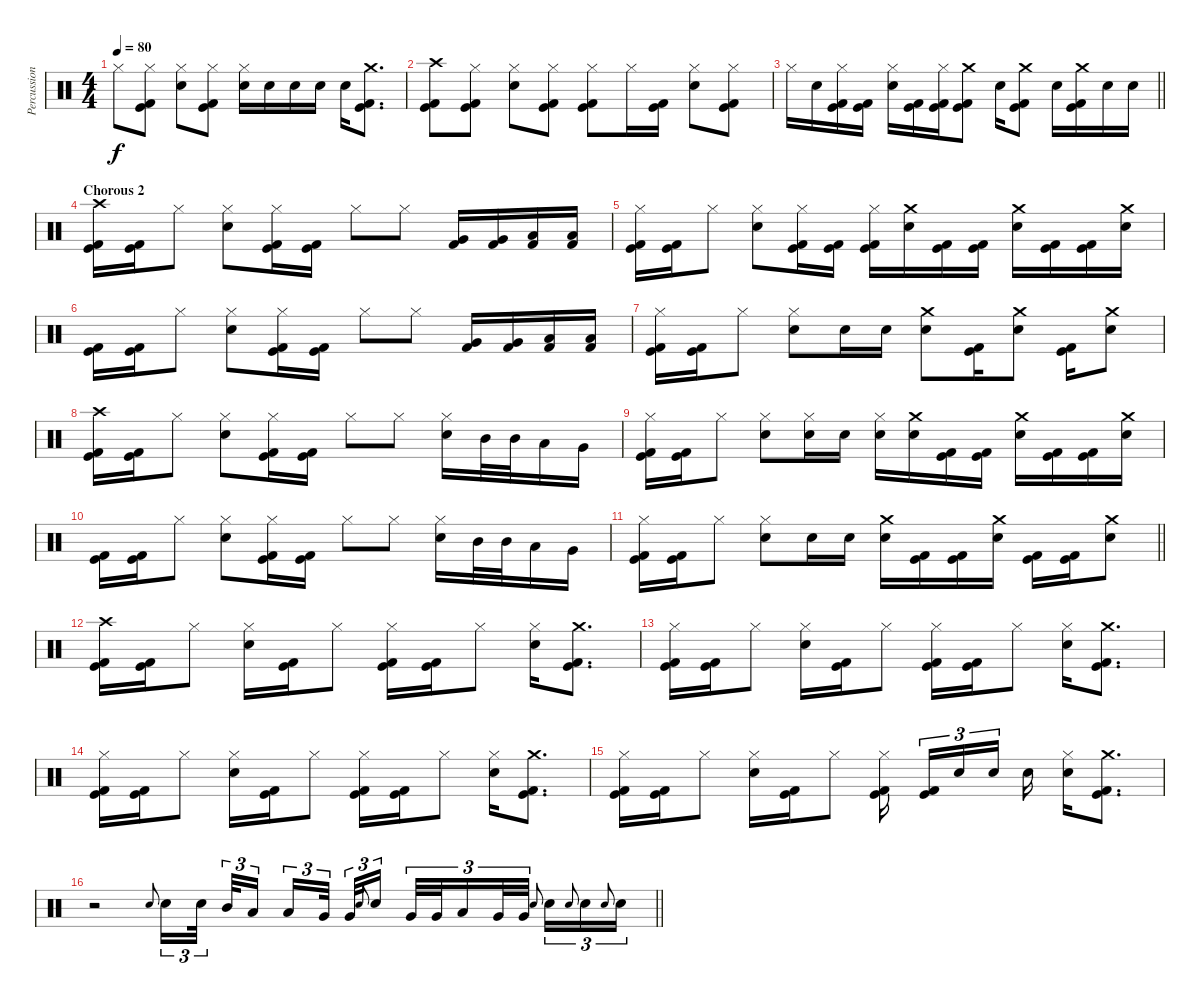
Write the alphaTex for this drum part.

\track ("Percussion" "Percussion") {instrument percussion}
\staff {score}
\articulation defaults
\ts (4 4)
\tempo 80
\clef neutral
\ks c "Hi-Hat (closed)".8{dy f}
("Hi-Hat (closed)" "Kick (hit)" "Kick (hit) 2").8 ("Hi-Hat (closed)" "Electric Snare (hit)").8 ("Hi-Hat (closed)" "Kick (hit)" "Kick (hit) 2").8 ("Hi-Hat (closed)" "Electric Snare (hit)").16 "Electric Snare (hit)".16 "Electric Snare (hit)".16 "Electric Snare (hit)".16 "Electric Snare (hit)".16 ("Crash medium (hit)" "Kick (hit)" "Kick (hit) 2").8{d} |
("Crash high (hit)" "Kick (hit)" "Kick (hit) 2").8 ("Hi-Hat (closed)" "Kick (hit)" "Kick (hit) 2").8 ("Hi-Hat (closed)" "Electric Snare (hit)").8 ("Hi-Hat (closed)" "Kick (hit)" "Kick (hit) 2").8 ("Hi-Hat (closed)" "Kick (hit)" "Kick (hit) 2").8 "Hi-Hat (closed)".16 ("Kick (hit)" "Kick (hit) 2").16 ("Hi-Hat (closed)" "Electric Snare (hit)").8 ("Hi-Hat (closed)" "Kick (hit)" "Kick (hit) 2").8 |
\barLineRight lightlight "Hi-Hat (closed)".16 "Electric Snare (hit)".16
("Hi-Hat (closed)" "Kick (hit)" "Kick (hit) 2").16 ("Kick (hit)" "Kick (hit) 2").16 ("Hi-Hat (closed)" "Electric Snare (hit)").16 ("Kick (hit)" "Kick (hit) 2").16 ("Hi-Hat (closed)" "Kick (hit)" "Kick (hit) 2").16 ("Crash medium (hit)" "Kick (hit)" "Kick (hit) 2").8 "Electric Snare (hit)".16 ("Crash medium (hit)" "Kick (hit)" "Kick (hit) 2").8 "Electric Snare (hit)".16 ("Crash medium (hit)" "Kick (hit)" "Kick (hit) 2").16 "Electric Snare (hit)".16 "Electric Snare (hit)".16 |
\section ("" "Chorous 2")
("Crash high (hit)" "Kick (hit)" "Kick (hit) 2").16 ("Kick (hit)" "Kick (hit) 2").16 "Hi-Hat (closed)".8 ("Hi-Hat (closed)" "Electric Snare (hit)").8 ("Hi-Hat (closed)" "Kick (hit)" "Kick (hit) 2").16 ("Kick (hit)" "Kick (hit) 2").16 "Hi-Hat (closed)".8 "Hi-Hat (closed)".8 ("Very Low Tom (hit)" "Kick (hit) 2").16 ("Very Low Tom (hit)" "Kick (hit) 2").16 ("Low Floor Tom (hit)" "Kick (hit) 2").16 ("Low Floor Tom (hit)" "Kick (hit) 2").16 |
("Hi-Hat (closed)" "Kick (hit)" "Kick (hit) 2").16 ("Kick (hit)" "Kick (hit) 2").16 "Hi-Hat (closed)".8 ("Hi-Hat (closed)" "Electric Snare (hit)").8 ("Hi-Hat (closed)" "Kick (hit)" "Kick (hit) 2").16 ("Kick (hit)" "Kick (hit) 2").16 ("Hi-Hat (closed)" "Kick (hit)" "Kick (hit) 2").16 ("Crash medium (hit)" "Electric Snare (hit)").16 ("Kick (hit)" "Kick (hit) 2").16 ("Kick (hit)" "Kick (hit) 2").16 ("Crash medium (hit)" "Electric Snare (hit)").16 ("Kick (hit)" "Kick (hit) 2").16 ("Kick (hit)" "Kick (hit) 2").16 ("Crash medium (hit)" "Electric Snare (hit)").16 |
("Kick (hit)" "Kick (hit) 2").16 ("Kick (hit)" "Kick (hit) 2").16 "Hi-Hat (closed)".8 ("Hi-Hat (closed)" "Electric Snare (hit)").8 ("Hi-Hat (closed)" "Kick (hit)" "Kick (hit) 2").16 ("Kick (hit)" "Kick (hit) 2").16 "Hi-Hat (closed)".8 "Hi-Hat (closed)".8 ("Very Low Tom (hit)" "Kick (hit) 2").16 ("Very Low Tom (hit)" "Kick (hit) 2").16 ("Low Floor Tom (hit)" "Kick (hit) 2").16 ("Low Floor Tom (hit)" "Kick (hit) 2").16 |
("Hi-Hat (closed)" "Kick (hit)" "Kick (hit) 2").16 ("Kick (hit)" "Kick (hit) 2").16 "Hi-Hat (closed)".8 ("Hi-Hat (closed)" "Electric Snare (hit)").8 "Electric Snare (hit)".16 "Electric Snare (hit)".16 ("Crash medium (hit)" "Electric Snare (hit)").8 ("Kick (hit)" "Kick (hit) 2").16 ("Crash medium (hit)" "Electric Snare (hit)").8 ("Kick (hit)" "Kick (hit) 2").16 ("Crash medium (hit)" "Electric Snare (hit)").8 |
("Crash high (hit)" "Kick (hit)" "Kick (hit) 2").16 ("Kick (hit)" "Kick (hit) 2").16 "Hi-Hat (closed)".8 ("Hi-Hat (closed)" "Electric Snare (hit)").8 ("Hi-Hat (closed)" "Kick (hit)" "Kick (hit) 2").16 ("Kick (hit)" "Kick (hit) 2").16 "Hi-Hat (closed)".8 "Hi-Hat (closed)".8 ("Hi-Hat (closed)" "Electric Snare (hit)").16 "Mid Tom (hit)".32 "Mid Tom (hit)".32 "Low Tom (hit)".16 "Very Low Tom (hit)".16 |
("Hi-Hat (closed)" "Kick (hit)" "Kick (hit) 2").16 ("Kick (hit)" "Kick (hit) 2").16 "Hi-Hat (closed)".8 ("Hi-Hat (closed)" "Electric Snare (hit)").8 ("Hi-Hat (closed)" "Electric Snare (hit)").16 "Electric Snare (hit)".16 ("Hi-Hat (closed)" "Electric Snare (hit)").16 ("Crash medium (hit)" "Electric Snare (hit)").16 ("Kick (hit)" "Kick (hit) 2").16 ("Kick (hit)" "Kick (hit) 2").16 ("Crash medium (hit)" "Electric Snare (hit)").16 ("Kick (hit)" "Kick (hit) 2").16 ("Kick (hit)" "Kick (hit) 2").16 ("Crash medium (hit)" "Electric Snare (hit)").16 |
("Kick (hit)" "Kick (hit) 2").16 ("Kick (hit)" "Kick (hit) 2").16 "Hi-Hat (closed)".8 ("Hi-Hat (closed)" "Electric Snare (hit)").8 ("Hi-Hat (closed)" "Kick (hit)" "Kick (hit) 2").16 ("Kick (hit)" "Kick (hit) 2").16 "Hi-Hat (closed)".8 "Hi-Hat (closed)".8 ("Hi-Hat (closed)" "Electric Snare (hit)").16 "Mid Tom (hit)".32 "Mid Tom (hit)".32 "Low Tom (hit)".16 "Very Low Tom (hit)".16 |
\barLineRight lightlight
("Hi-Hat (closed)" "Kick (hit)" "Kick (hit) 2").16 ("Kick (hit)" "Kick (hit) 2").16 "Hi-Hat (closed)".8 ("Hi-Hat (closed)" "Electric Snare (hit)").8 "Electric Snare (hit)".16 "Electric Snare (hit)".16 ("Crash medium (hit)" "Electric Snare (hit)").16 ("Kick (hit)" "Kick (hit) 2").16 ("Kick (hit)" "Kick (hit) 2").16 ("Crash medium (hit)" "Electric Snare (hit)").16 ("Kick (hit)" "Kick (hit) 2").16 ("Kick (hit)" "Kick (hit) 2").16 ("Crash medium (hit)" "Electric Snare (hit)").8 |
\section ("" "")
("Crash high (hit)" "Kick (hit)" "Kick (hit) 2").16 ("Kick (hit)" "Kick (hit) 2").16 "Hi-Hat (closed)".8 ("Hi-Hat (closed)" "Electric Snare (hit)").16 ("Kick (hit)" "Kick (hit) 2").16 "Hi-Hat (closed)".8 ("Hi-Hat (closed)" "Kick (hit)" "Kick (hit) 2").16 ("Kick (hit)" "Kick (hit) 2").16 "Hi-Hat (closed)".8 ("Hi-Hat (closed)" "Electric Snare (hit)").16 ("Crash medium (hit)" "Kick (hit)" "Kick (hit) 2").8{d} |
("Hi-Hat (closed)" "Kick (hit)" "Kick (hit) 2").16 ("Kick (hit)" "Kick (hit) 2").16 "Hi-Hat (closed)".8 ("Hi-Hat (closed)" "Electric Snare (hit)").16 ("Kick (hit)" "Kick (hit) 2").16 "Hi-Hat (closed)".8 ("Hi-Hat (closed)" "Kick (hit)" "Kick (hit) 2").16 ("Kick (hit)" "Kick (hit) 2").16 "Hi-Hat (closed)".8 ("Hi-Hat (closed)" "Electric Snare (hit)").16 ("Crash medium (hit)" "Kick (hit)" "Kick (hit) 2").8{d} |
("Hi-Hat (closed)" "Kick (hit)" "Kick (hit) 2").16 ("Kick (hit)" "Kick (hit) 2").16 "Hi-Hat (closed)".8 ("Hi-Hat (closed)" "Electric Snare (hit)").16 ("Kick (hit)" "Kick (hit) 2").16 "Hi-Hat (closed)".8 ("Hi-Hat (closed)" "Kick (hit)" "Kick (hit) 2").16 ("Kick (hit)" "Kick (hit) 2").16 "Hi-Hat (closed)".8 ("Hi-Hat (closed)" "Electric Snare (hit)").16 ("Crash medium (hit)" "Kick (hit)" "Kick (hit) 2").8{d} |
("Hi-Hat (closed)" "Kick (hit)" "Kick (hit) 2").16 ("Kick (hit)" "Kick (hit) 2").16 "Hi-Hat (closed)".8 ("Hi-Hat (closed)" "Electric Snare (hit)").16 ("Kick (hit)" "Kick (hit) 2").16 "Hi-Hat (closed)".8 ("Hi-Hat (closed)" "Kick (hit)" "Kick (hit) 2").16{beam splitsecondary} ("Kick (hit)" "Kick (hit) 2").16{tu (3 2)} "Electric Snare (hit)".16{tu (3 2)} "Electric Snare (hit)".16{tu (3 2) beam splitsecondary} "Electric Snare (hit)".16 ("Hi-Hat (closed)" "Electric Snare (hit)").16 ("Crash medium (hit)" "Kick (hit)" "Kick (hit) 2").8{d} |
\barLineRight lightlight
r.2 "Electric Snare (hit)".8{gr onbeat} "Electric Snare (hit)".16{tu (3 2)} "Electric Snare (hit)".32{tu (3 2) beam splitsecondary} "Mid Tom (hit)".32{tu (3 2)} "Low Tom (hit)".16{tu (3 2) beam splitsecondary} "Low Tom (hit)".16{tu (3 2)} "Very Low Tom (hit)".32{tu (3 2) beam splitsecondary} "Very Low Tom (hit)".32{tu (3 2)} "Electric Snare (hit)".8{gr onbeat} "Electric Snare (hit)".16{tu (3 2)} "Very Low Tom (hit)".32{tu (3 2)} "Very Low Tom (hit)".32{tu (3 2)} "Low Floor Tom (hit)".16{tu (3 2)} "Very Low Tom (hit)".32{tu (3 2)} "Very Low Tom (hit)".32{tu (3 2)} "Electric Snare (hit)".8{gr onbeat beam splitsecondary} "Electric Snare (hit)".16{tu (3 2)} "Electric Snare (hit)".8{gr onbeat} "Electric Snare (hit)".16{tu (3 2)} "Electric Snare (hit)".8{gr onbeat} "Electric Snare (hit)".16{tu (3 2)}
